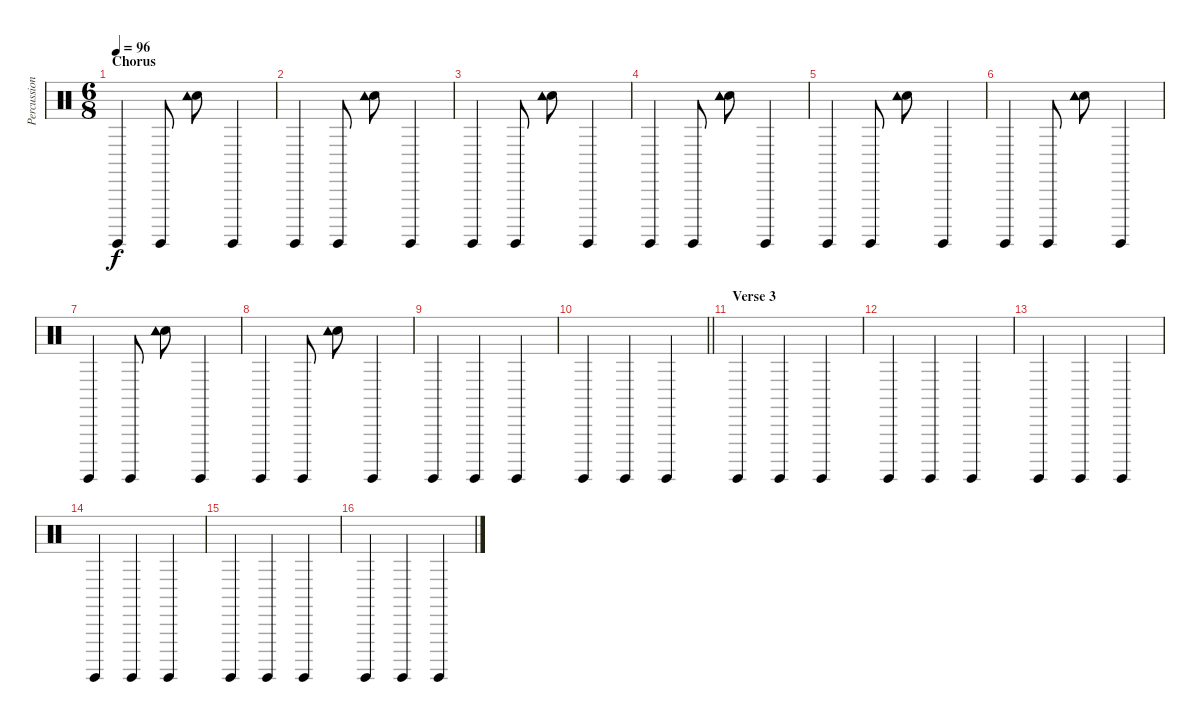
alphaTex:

\track ("Percussion" "Percussion") {instrument percussion}
\staff {score}
\articulation defaults
\ts (6 8)
\section ("" "Chorus")
\tempo 96
\clef neutral
\ks c "Surdo (hit)".4{dy f} "Surdo (hit)".8
("Snare (hit) 2" "Tambourine (hit)").8 "Surdo (hit)".4 |
"Surdo (hit)".4 "Surdo (hit)".8 ("Snare (hit) 2" "Tambourine (hit)").8 "Surdo (hit)".4 |
"Surdo (hit)".4 "Surdo (hit)".8 ("Snare (hit) 2" "Tambourine (hit)").8 "Surdo (hit)".4 |
"Surdo (hit)".4 "Surdo (hit)".8 ("Snare (hit) 2" "Tambourine (hit)").8 "Surdo (hit)".4 |
"Surdo (hit)".4 "Surdo (hit)".8 ("Snare (hit) 2" "Tambourine (hit)").8 "Surdo (hit)".4 |
"Surdo (hit)".4 "Surdo (hit)".8 ("Snare (hit) 2" "Tambourine (hit)").8 "Surdo (hit)".4 |
"Surdo (hit)".4 "Surdo (hit)".8 ("Snare (hit) 2" "Tambourine (hit)").8 "Surdo (hit)".4 |
"Surdo (hit)".4 "Surdo (hit)".8 ("Snare (hit) 2" "Tambourine (hit)").8 "Surdo (hit)".4 |
"Surdo (hit)".4 "Surdo (hit)".4 "Surdo (hit)".4 |
\barLineRight lightlight "Surdo (hit)".4 "Surdo (hit)".4 "Surdo (hit)".4
|
\section ("" "Verse 3")
"Surdo (hit)".4 "Surdo (hit)".4 "Surdo (hit)".4 |
"Surdo (hit)".4 "Surdo (hit)".4 "Surdo (hit)".4 |
"Surdo (hit)".4 "Surdo (hit)".4 "Surdo (hit)".4 |
"Surdo (hit)".4 "Surdo (hit)".4 "Surdo (hit)".4 |
"Surdo (hit)".4 "Surdo (hit)".4 "Surdo (hit)".4 |
"Surdo (hit)".4 "Surdo (hit)".4 "Surdo (hit)".4
